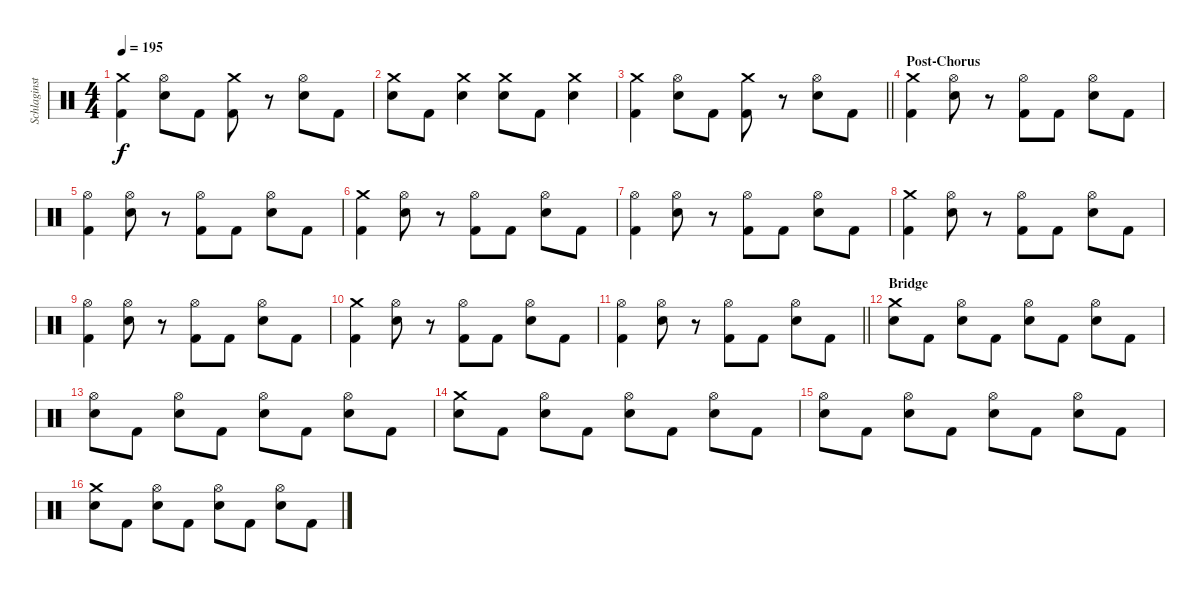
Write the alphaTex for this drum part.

\track ("Schlaginstrumente - Auswahl" "Schlaginst") {instrument percussion}
\staff {score}
\articulation defaults
\ts (4 4)
\tempo 195
\clef neutral
\ks c
("Crash medium (hit)" "Kick (hit) 2").4{dy f} ("Hi-Hat (open)" "Snare (hit) 2").8 "Kick (hit) 2".8 ("Crash medium (hit)" "Kick (hit) 2").8 r.8 ("Hi-Hat (open)" "Snare (hit) 2").8 "Kick (hit) 2".8 |
("Crash medium (hit)" "Snare (hit) 2").8 "Kick (hit) 2".8 ("Crash medium (hit)" "Snare (hit) 2").4 ("Crash medium (hit)" "Snare (hit) 2").8 "Kick (hit) 2".8 ("Crash medium (hit)" "Snare (hit) 2").4 |
\barLineRight lightlight
("Crash medium (hit)" "Kick (hit) 2").4 ("Hi-Hat (open)" "Snare (hit) 2").8 "Kick (hit) 2".8 ("Crash medium (hit)" "Kick (hit) 2").8 r.8 ("Hi-Hat (open)" "Snare (hit) 2").8 "Kick (hit) 2".8 |
\section ("" "Post-Chorus")
("Crash medium (hit)" "Kick (hit) 2").4 ("Hi-Hat (open)" "Snare (hit) 2").8 r.8 ("Hi-Hat (open)" "Kick (hit) 2").8 "Kick (hit) 2".8 ("Hi-Hat (open)" "Snare (hit) 2").8 "Kick (hit) 2".8 |
("Hi-Hat (open)" "Kick (hit) 2").4 ("Hi-Hat (open)" "Snare (hit) 2").8 r.8 ("Hi-Hat (open)" "Kick (hit) 2").8 "Kick (hit) 2".8 ("Hi-Hat (open)" "Snare (hit) 2").8 "Kick (hit) 2".8 |
("Crash medium (hit)" "Kick (hit) 2").4 ("Hi-Hat (open)" "Snare (hit) 2").8 r.8 ("Hi-Hat (open)" "Kick (hit) 2").8 "Kick (hit) 2".8 ("Hi-Hat (open)" "Snare (hit) 2").8 "Kick (hit) 2".8 |
("Hi-Hat (open)" "Kick (hit) 2").4 ("Hi-Hat (open)" "Snare (hit) 2").8 r.8 ("Hi-Hat (open)" "Kick (hit) 2").8 "Kick (hit) 2".8 ("Hi-Hat (open)" "Snare (hit) 2").8 "Kick (hit) 2".8 |
("Crash medium (hit)" "Kick (hit) 2").4 ("Hi-Hat (open)" "Snare (hit) 2").8 r.8 ("Hi-Hat (open)" "Kick (hit) 2").8 "Kick (hit) 2".8 ("Hi-Hat (open)" "Snare (hit) 2").8 "Kick (hit) 2".8 |
("Hi-Hat (open)" "Kick (hit) 2").4 ("Hi-Hat (open)" "Snare (hit) 2").8 r.8 ("Hi-Hat (open)" "Kick (hit) 2").8 "Kick (hit) 2".8 ("Hi-Hat (open)" "Snare (hit) 2").8 "Kick (hit) 2".8 |
("Crash medium (hit)" "Kick (hit) 2").4 ("Hi-Hat (open)" "Snare (hit) 2").8 r.8 ("Hi-Hat (open)" "Kick (hit) 2").8 "Kick (hit) 2".8 ("Hi-Hat (open)" "Snare (hit) 2").8 "Kick (hit) 2".8 |
\barLineRight lightlight
("Hi-Hat (open)" "Kick (hit) 2").4 ("Hi-Hat (open)" "Snare (hit) 2").8 r.8 ("Hi-Hat (open)" "Kick (hit) 2").8 "Kick (hit) 2".8 ("Hi-Hat (open)" "Snare (hit) 2").8 "Kick (hit) 2".8 |
\section ("" "Bridge")
("Crash medium (hit)" "Snare (hit) 2").8 "Kick (hit) 2".8 ("Hi-Hat (open)" "Snare (hit) 2").8 "Kick (hit) 2".8 ("Hi-Hat (open)" "Snare (hit) 2").8 "Kick (hit) 2".8 ("Hi-Hat (open)" "Snare (hit) 2").8 "Kick (hit) 2".8 |
("Hi-Hat (open)" "Snare (hit) 2").8 "Kick (hit) 2".8 ("Hi-Hat (open)" "Snare (hit) 2").8 "Kick (hit) 2".8 ("Hi-Hat (open)" "Snare (hit) 2").8 "Kick (hit) 2".8 ("Hi-Hat (open)" "Snare (hit) 2").8 "Kick (hit) 2".8 |
("Crash medium (hit)" "Snare (hit) 2").8 "Kick (hit) 2".8 ("Hi-Hat (open)" "Snare (hit) 2").8 "Kick (hit) 2".8 ("Hi-Hat (open)" "Snare (hit) 2").8 "Kick (hit) 2".8 ("Hi-Hat (open)" "Snare (hit) 2").8 "Kick (hit) 2".8 |
("Hi-Hat (open)" "Snare (hit) 2").8 "Kick (hit) 2".8 ("Hi-Hat (open)" "Snare (hit) 2").8 "Kick (hit) 2".8 ("Hi-Hat (open)" "Snare (hit) 2").8 "Kick (hit) 2".8 ("Hi-Hat (open)" "Snare (hit) 2").8 "Kick (hit) 2".8 |
("Crash medium (hit)" "Snare (hit) 2").8 "Kick (hit) 2".8 ("Hi-Hat (open)" "Snare (hit) 2").8 "Kick (hit) 2".8 ("Hi-Hat (open)" "Snare (hit) 2").8 "Kick (hit) 2".8 ("Hi-Hat (open)" "Snare (hit) 2").8 "Kick (hit) 2".8
